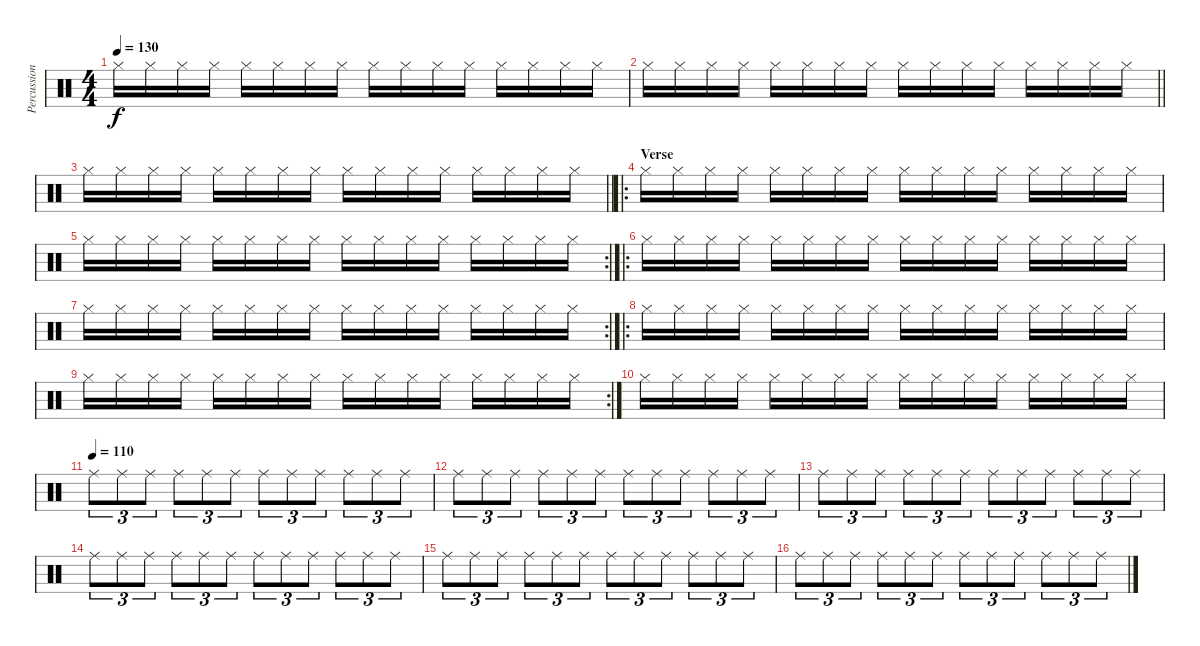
\track ("Percussion" "Percussion") {instrument percussion}
\staff {score}
\articulation defaults
\ts (4 4)
\tempo 130
\clef neutral
\ks c "Hi-Hat (closed)".16{dy f} "Hi-Hat (closed)".16 "Hi-Hat (closed)".16 "Hi-Hat (closed)".16 "Hi-Hat (closed)".16 "Hi-Hat (closed)".16 "Hi-Hat (closed)".16 "Hi-Hat (closed)".16 "Hi-Hat (closed)".16 "Hi-Hat (closed)".16 "Hi-Hat (closed)".16 "Hi-Hat (closed)".16 "Hi-Hat (closed)".16 "Hi-Hat (closed)".16 "Hi-Hat (closed)".16 "Hi-Hat (closed)".16
|
\barLineRight lightlight "Hi-Hat (closed)".16 "Hi-Hat (closed)".16 "Hi-Hat (closed)".16 "Hi-Hat (closed)".16 "Hi-Hat (closed)".16 "Hi-Hat (closed)".16 "Hi-Hat (closed)".16 "Hi-Hat (closed)".16 "Hi-Hat (closed)".16 "Hi-Hat (closed)".16 "Hi-Hat (closed)".16 "Hi-Hat (closed)".16 "Hi-Hat (closed)".16 "Hi-Hat (closed)".16 "Hi-Hat (closed)".16 "Hi-Hat (closed)".16
|
\barLineRight lightlight "Hi-Hat (closed)".16 "Hi-Hat (closed)".16 "Hi-Hat (closed)".16 "Hi-Hat (closed)".16 "Hi-Hat (closed)".16 "Hi-Hat (closed)".16 "Hi-Hat (closed)".16 "Hi-Hat (closed)".16 "Hi-Hat (closed)".16 "Hi-Hat (closed)".16 "Hi-Hat (closed)".16 "Hi-Hat (closed)".16 "Hi-Hat (closed)".16 "Hi-Hat (closed)".16 "Hi-Hat (closed)".16 "Hi-Hat (closed)".16
|
\ro
\section ("" "Verse")
"Hi-Hat (closed)".16 "Hi-Hat (closed)".16 "Hi-Hat (closed)".16 "Hi-Hat (closed)".16 "Hi-Hat (closed)".16 "Hi-Hat (closed)".16 "Hi-Hat (closed)".16 "Hi-Hat (closed)".16 "Hi-Hat (closed)".16 "Hi-Hat (closed)".16 "Hi-Hat (closed)".16 "Hi-Hat (closed)".16 "Hi-Hat (closed)".16 "Hi-Hat (closed)".16 "Hi-Hat (closed)".16 "Hi-Hat (closed)".16 |
\rc 2 "Hi-Hat (closed)".16 "Hi-Hat (closed)".16 "Hi-Hat (closed)".16 "Hi-Hat (closed)".16 "Hi-Hat (closed)".16 "Hi-Hat (closed)".16 "Hi-Hat (closed)".16 "Hi-Hat (closed)".16 "Hi-Hat (closed)".16 "Hi-Hat (closed)".16 "Hi-Hat (closed)".16 "Hi-Hat (closed)".16 "Hi-Hat (closed)".16 "Hi-Hat (closed)".16 "Hi-Hat (closed)".16 "Hi-Hat (closed)".16
|
\ro "Hi-Hat (closed)".16 "Hi-Hat (closed)".16 "Hi-Hat (closed)".16 "Hi-Hat (closed)".16 "Hi-Hat (closed)".16 "Hi-Hat (closed)".16 "Hi-Hat (closed)".16 "Hi-Hat (closed)".16 "Hi-Hat (closed)".16 "Hi-Hat (closed)".16 "Hi-Hat (closed)".16 "Hi-Hat (closed)".16 "Hi-Hat (closed)".16 "Hi-Hat (closed)".16 "Hi-Hat (closed)".16 "Hi-Hat (closed)".16
|
\rc 2 "Hi-Hat (closed)".16 "Hi-Hat (closed)".16 "Hi-Hat (closed)".16 "Hi-Hat (closed)".16 "Hi-Hat (closed)".16 "Hi-Hat (closed)".16 "Hi-Hat (closed)".16 "Hi-Hat (closed)".16 "Hi-Hat (closed)".16 "Hi-Hat (closed)".16 "Hi-Hat (closed)".16 "Hi-Hat (closed)".16 "Hi-Hat (closed)".16 "Hi-Hat (closed)".16 "Hi-Hat (closed)".16 "Hi-Hat (closed)".16
|
\ro "Hi-Hat (closed)".16 "Hi-Hat (closed)".16 "Hi-Hat (closed)".16 "Hi-Hat (closed)".16 "Hi-Hat (closed)".16 "Hi-Hat (closed)".16 "Hi-Hat (closed)".16 "Hi-Hat (closed)".16 "Hi-Hat (closed)".16 "Hi-Hat (closed)".16 "Hi-Hat (closed)".16 "Hi-Hat (closed)".16 "Hi-Hat (closed)".16 "Hi-Hat (closed)".16 "Hi-Hat (closed)".16 "Hi-Hat (closed)".16
|
\rc 2 "Hi-Hat (closed)".16 "Hi-Hat (closed)".16 "Hi-Hat (closed)".16 "Hi-Hat (closed)".16 "Hi-Hat (closed)".16 "Hi-Hat (closed)".16 "Hi-Hat (closed)".16 "Hi-Hat (closed)".16 "Hi-Hat (closed)".16 "Hi-Hat (closed)".16 "Hi-Hat (closed)".16 "Hi-Hat (closed)".16 "Hi-Hat (closed)".16 "Hi-Hat (closed)".16 "Hi-Hat (closed)".16 "Hi-Hat (closed)".16
|
"Hi-Hat (closed)".16 "Hi-Hat (closed)".16 "Hi-Hat (closed)".16 "Hi-Hat (closed)".16 "Hi-Hat (closed)".16 "Hi-Hat (closed)".16 "Hi-Hat (closed)".16 "Hi-Hat (closed)".16 "Hi-Hat (closed)".16 "Hi-Hat (closed)".16 "Hi-Hat (closed)".16 "Hi-Hat (closed)".16 "Hi-Hat (closed)".16 "Hi-Hat (closed)".16 "Hi-Hat (closed)".16 "Hi-Hat (closed)".16 |
\tempo (110)
"Ride (middle)".8{tu (3 2)} "Ride (middle)".8{tu (3 2)} "Ride (middle)".8{tu (3 2)} "Ride (middle)".8{tu (3 2)} "Ride (middle)".8{tu (3 2)} "Ride (middle)".8{tu (3 2)} "Ride (middle)".8{tu (3 2)} "Ride (middle)".8{tu (3 2)} "Ride (middle)".8{tu (3 2)} "Ride (middle)".8{tu (3 2)} "Ride (middle)".8{tu (3 2)} "Ride (middle)".8{tu (3 2)} |
"Ride (middle)".8{tu (3 2)} "Ride (middle)".8{tu (3 2)} "Ride (middle)".8{tu (3 2)} "Ride (middle)".8{tu (3 2)} "Ride (middle)".8{tu (3 2)} "Ride (middle)".8{tu (3 2)} "Ride (middle)".8{tu (3 2)} "Ride (middle)".8{tu (3 2)} "Ride (middle)".8{tu (3 2)} "Ride (middle)".8{tu (3 2)} "Ride (middle)".8{tu (3 2)} "Ride (middle)".8{tu (3 2)} |
"Ride (middle)".8{tu (3 2)} "Ride (middle)".8{tu (3 2)} "Ride (middle)".8{tu (3 2)} "Ride (middle)".8{tu (3 2)} "Ride (middle)".8{tu (3 2)} "Ride (middle)".8{tu (3 2)} "Ride (middle)".8{tu (3 2)} "Ride (middle)".8{tu (3 2)} "Ride (middle)".8{tu (3 2)} "Ride (middle)".8{tu (3 2)} "Ride (middle)".8{tu (3 2)} "Ride (middle)".8{tu (3 2)} |
"Ride (middle)".8{tu (3 2)} "Ride (middle)".8{tu (3 2)} "Ride (middle)".8{tu (3 2)} "Ride (middle)".8{tu (3 2)} "Ride (middle)".8{tu (3 2)} "Ride (middle)".8{tu (3 2)} "Ride (middle)".8{tu (3 2)} "Ride (middle)".8{tu (3 2)} "Ride (middle)".8{tu (3 2)} "Ride (middle)".8{tu (3 2)} "Ride (middle)".8{tu (3 2)} "Ride (middle)".8{tu (3 2)} |
"Ride (middle)".8{tu (3 2)} "Ride (middle)".8{tu (3 2)} "Ride (middle)".8{tu (3 2)} "Ride (middle)".8{tu (3 2)} "Ride (middle)".8{tu (3 2)} "Ride (middle)".8{tu (3 2)} "Ride (middle)".8{tu (3 2)} "Ride (middle)".8{tu (3 2)} "Ride (middle)".8{tu (3 2)} "Ride (middle)".8{tu (3 2)} "Ride (middle)".8{tu (3 2)} "Ride (middle)".8{tu (3 2)} |
"Ride (middle)".8{tu (3 2)} "Ride (middle)".8{tu (3 2)} "Ride (middle)".8{tu (3 2)} "Ride (middle)".8{tu (3 2)} "Ride (middle)".8{tu (3 2)} "Ride (middle)".8{tu (3 2)} "Ride (middle)".8{tu (3 2)} "Ride (middle)".8{tu (3 2)} "Ride (middle)".8{tu (3 2)} "Ride (middle)".8{tu (3 2)} "Ride (middle)".8{tu (3 2)} "Ride (middle)".8{tu (3 2)}
